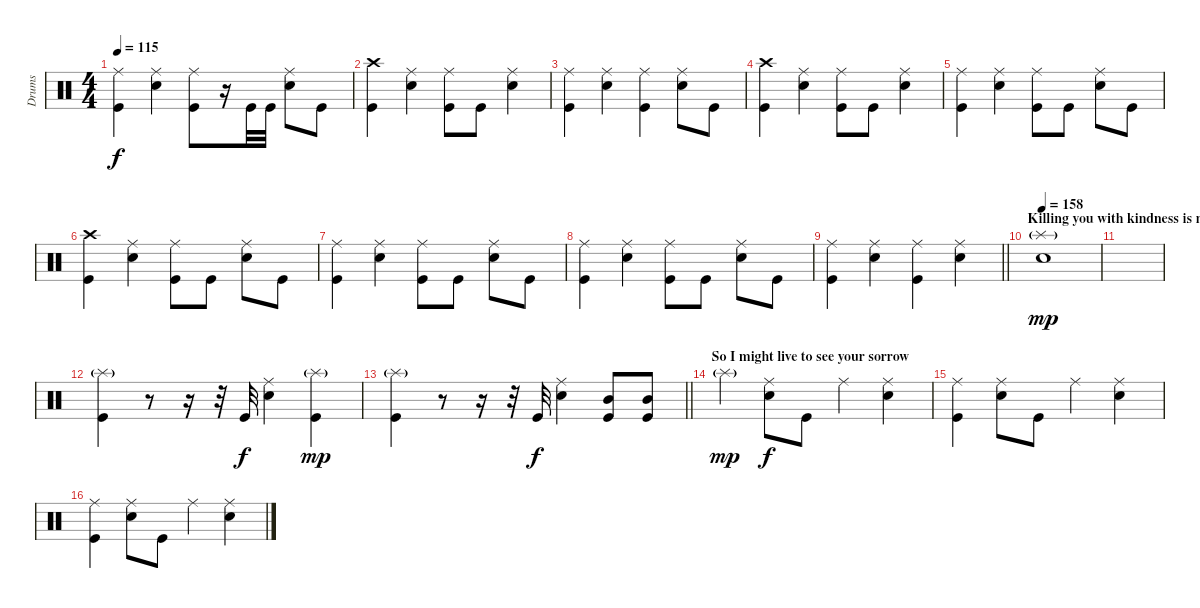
\track ("Drums" "Drums") {instrument percussion}
\staff {score}
\articulation defaults
\ts (4 4)
\tempo 115
\clef neutral
\ks c
("Ride (middle)" "Kick (hit)").4{dy f} ("Ride (middle)" "Snare (hit) 2").4 ("Ride (middle)" "Kick (hit)").8 r.16 "Kick (hit)".32 "Kick (hit)".32 ("Ride (middle)" "Snare (hit) 2").8 "Kick (hit)".8 |
("Crash high (hit)" "Kick (hit)").4 ("Ride (middle)" "Snare (hit) 2").4 ("Ride (middle)" "Kick (hit)").8 "Kick (hit)".8 ("Ride (middle)" "Snare (hit) 2").4 |
("Ride (middle)" "Kick (hit)").4 ("Ride (middle)" "Snare (hit) 2").4 ("Ride (middle)" "Kick (hit)").4 ("Ride (middle)" "Snare (hit) 2").8 "Kick (hit)".8 |
("Crash high (hit)" "Kick (hit)").4 ("Ride (middle)" "Snare (hit) 2").4 ("Ride (middle)" "Kick (hit)").8 "Kick (hit)".8 ("Ride (middle)" "Snare (hit) 2").4 |
("Ride (middle)" "Kick (hit)").4 ("Ride (middle)" "Snare (hit) 2").4 ("Ride (middle)" "Kick (hit)").8 "Kick (hit)".8 ("Ride (middle)" "Snare (hit) 2").8 "Kick (hit)".8 |
("Crash high (hit)" "Kick (hit)").4 ("Ride (middle)" "Snare (hit) 2").4 ("Ride (middle)" "Kick (hit)").8 "Kick (hit)".8 ("Ride (middle)" "Snare (hit) 2").8 "Kick (hit)".8 |
("Ride (middle)" "Kick (hit)").4 ("Ride (middle)" "Snare (hit) 2").4 ("Ride (middle)" "Kick (hit)").8 "Kick (hit)".8 ("Ride (middle)" "Snare (hit) 2").8 "Kick (hit)".8 |
("Ride (middle)" "Kick (hit)").4 ("Ride (middle)" "Snare (hit) 2").4 ("Ride (middle)" "Kick (hit)").8 "Kick (hit)".8 ("Ride (middle)" "Snare (hit) 2").8 "Kick (hit)".8 |
\barLineRight lightlight
("Ride (middle)" "Kick (hit)").4 ("Ride (middle)" "Snare (hit) 2").4 ("Ride (middle)" "Kick (hit)").4 ("Ride (middle)" "Snare (hit) 2").4 |
\section ("" "Killing you with kindness is my game")
\tempo 160
\tempo 158
("Splash (hit)"{g} "Snare (hit) 2").1{dy mp} |
|
("Splash (hit)"{g} "Kick (hit)").4 r.8 r.16 r.32 "Kick (hit)".32{dy f} ("Ride (middle)" "Snare (hit) 2").4 ("Splash (hit)"{g} "Kick (hit)").4{dy mp} |
\barLineRight lightlight
("Splash (hit)"{g} "Kick (hit)").4 r.8 r.16 r.32 "Kick (hit)".32{dy f} ("Ride (middle)" "Snare (hit) 2").4 ("Mid Tom (hit)" "Kick (hit)").8 ("Mid Tom (hit)" "Kick (hit)").8 |
\section ("" "So I might live to see your sorrow")
"Splash (hit)"{g}.4{dy mp} ("Ride (middle)" "Snare (hit) 2").8{dy f} "Kick (hit)".8 "Ride (middle)".4 ("Ride (middle)" "Snare (hit) 2").4 |
("Ride (middle)" "Kick (hit)").4 ("Ride (middle)" "Snare (hit) 2").8 "Kick (hit)".8 "Ride (middle)".4 ("Ride (middle)" "Snare (hit) 2").4 |
("Ride (middle)" "Kick (hit)").4 ("Ride (middle)" "Snare (hit) 2").8 "Kick (hit)".8 "Ride (middle)".4 ("Ride (middle)" "Snare (hit) 2").4
